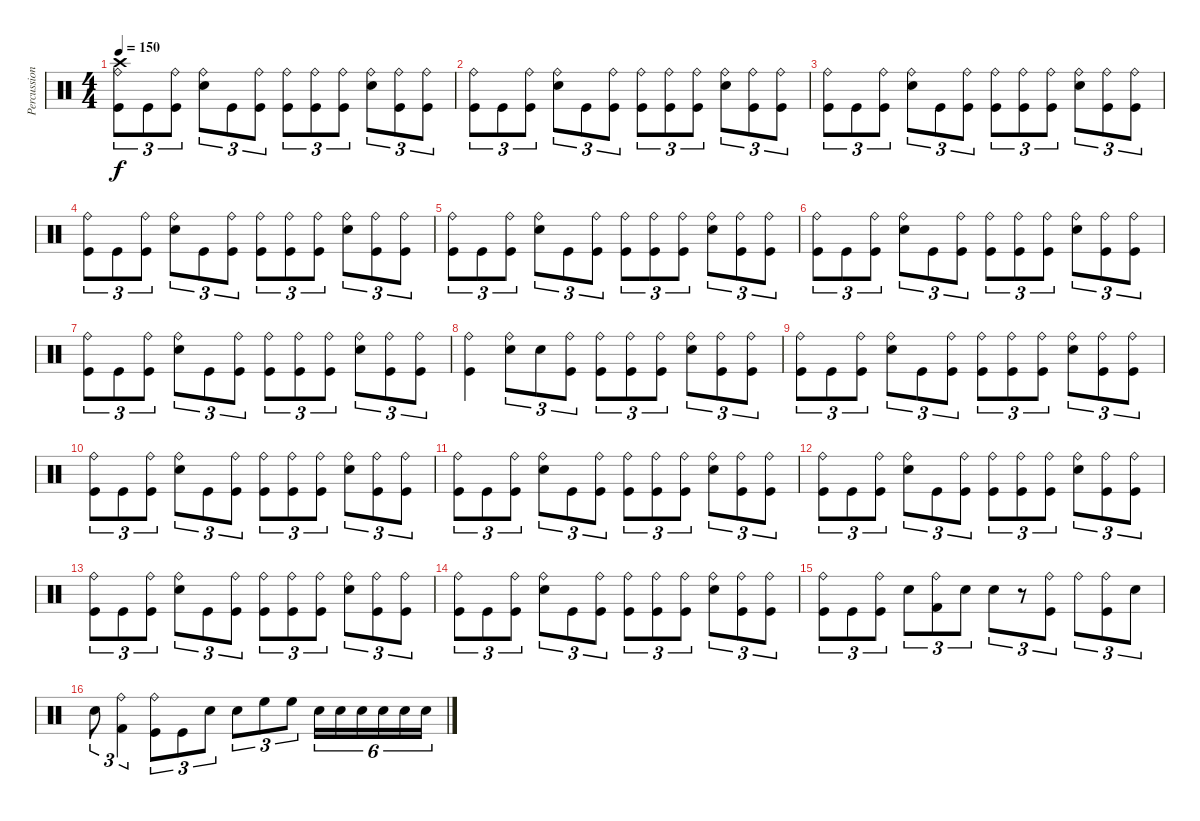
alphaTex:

\track ("Percussion" "Percussion") {instrument percussion}
\staff {score}
\articulation defaults
\ts (4 4)
\tempo 150
\clef neutral
\ks c
("Ride (bell)" "Crash high (hit)" "Kick (hit)").8{tu (3 2) dy f} "Kick (hit)".8{tu (3 2)} ("Ride (bell)" "Kick (hit)").8{tu (3 2)} ("Ride (bell)" "Snare (hit) 2").8{tu (3 2)} "Kick (hit)".8{tu (3 2)} ("Ride (bell)" "Kick (hit)").8{tu (3 2)} ("Ride (bell)" "Kick (hit)").8{tu (3 2)} ("Ride (bell)" "Kick (hit)").8{tu (3 2)} ("Ride (bell)" "Kick (hit)").8{tu (3 2)} ("Ride (bell)" "Snare (hit) 2").8{tu (3 2)} ("Ride (bell)" "Kick (hit)").8{tu (3 2)} ("Ride (bell)" "Kick (hit)").8{tu (3 2)} |
("Ride (bell)" "Kick (hit)").8{tu (3 2)} "Kick (hit)".8{tu (3 2)} ("Ride (bell)" "Kick (hit)").8{tu (3 2)} ("Ride (bell)" "Snare (hit) 2").8{tu (3 2)} "Kick (hit)".8{tu (3 2)} ("Ride (bell)" "Kick (hit)").8{tu (3 2)} ("Ride (bell)" "Kick (hit)").8{tu (3 2)} ("Ride (bell)" "Kick (hit)").8{tu (3 2)} ("Ride (bell)" "Kick (hit)").8{tu (3 2)} ("Ride (bell)" "Snare (hit) 2").8{tu (3 2)} ("Ride (bell)" "Kick (hit)").8{tu (3 2)} ("Ride (bell)" "Kick (hit)").8{tu (3 2)} |
("Ride (bell)" "Kick (hit)").8{tu (3 2)} "Kick (hit)".8{tu (3 2)} ("Ride (bell)" "Kick (hit)").8{tu (3 2)} ("Ride (bell)" "Snare (hit) 2").8{tu (3 2)} "Kick (hit)".8{tu (3 2)} ("Ride (bell)" "Kick (hit)").8{tu (3 2)} ("Ride (bell)" "Kick (hit)").8{tu (3 2)} ("Ride (bell)" "Kick (hit)").8{tu (3 2)} ("Ride (bell)" "Kick (hit)").8{tu (3 2)} ("Ride (bell)" "Snare (hit) 2").8{tu (3 2)} ("Ride (bell)" "Kick (hit)").8{tu (3 2)} ("Ride (bell)" "Kick (hit)").8{tu (3 2)} |
("Ride (bell)" "Kick (hit)").8{tu (3 2)} "Kick (hit)".8{tu (3 2)} ("Ride (bell)" "Kick (hit)").8{tu (3 2)} ("Ride (bell)" "Snare (hit) 2").8{tu (3 2)} "Kick (hit)".8{tu (3 2)} ("Ride (bell)" "Kick (hit)").8{tu (3 2)} ("Ride (bell)" "Kick (hit)").8{tu (3 2)} ("Ride (bell)" "Kick (hit)").8{tu (3 2)} ("Ride (bell)" "Kick (hit)").8{tu (3 2)} ("Ride (bell)" "Snare (hit) 2").8{tu (3 2)} ("Ride (bell)" "Kick (hit)").8{tu (3 2)} ("Ride (bell)" "Kick (hit)").8{tu (3 2)} |
("Ride (bell)" "Kick (hit)").8{tu (3 2)} "Kick (hit)".8{tu (3 2)} ("Ride (bell)" "Kick (hit)").8{tu (3 2)} ("Ride (bell)" "Snare (hit) 2").8{tu (3 2)} "Kick (hit)".8{tu (3 2)} ("Ride (bell)" "Kick (hit)").8{tu (3 2)} ("Ride (bell)" "Kick (hit)").8{tu (3 2)} ("Ride (bell)" "Kick (hit)").8{tu (3 2)} ("Ride (bell)" "Kick (hit)").8{tu (3 2)} ("Ride (bell)" "Snare (hit) 2").8{tu (3 2)} ("Ride (bell)" "Kick (hit)").8{tu (3 2)} ("Ride (bell)" "Kick (hit)").8{tu (3 2)} |
("Ride (bell)" "Kick (hit)").8{tu (3 2)} "Kick (hit)".8{tu (3 2)} ("Ride (bell)" "Kick (hit)").8{tu (3 2)} ("Ride (bell)" "Snare (hit) 2").8{tu (3 2)} "Kick (hit)".8{tu (3 2)} ("Ride (bell)" "Kick (hit)").8{tu (3 2)} ("Ride (bell)" "Kick (hit)").8{tu (3 2)} ("Ride (bell)" "Kick (hit)").8{tu (3 2)} ("Ride (bell)" "Kick (hit)").8{tu (3 2)} ("Ride (bell)" "Snare (hit) 2").8{tu (3 2)} ("Ride (bell)" "Kick (hit)").8{tu (3 2)} ("Ride (bell)" "Kick (hit)").8{tu (3 2)} |
("Ride (bell)" "Kick (hit)").8{tu (3 2)} "Kick (hit)".8{tu (3 2)} ("Ride (bell)" "Kick (hit)").8{tu (3 2)} ("Ride (bell)" "Snare (hit) 2").8{tu (3 2)} "Kick (hit)".8{tu (3 2)} ("Ride (bell)" "Kick (hit)").8{tu (3 2)} ("Ride (bell)" "Kick (hit)").8{tu (3 2)} ("Ride (bell)" "Kick (hit)").8{tu (3 2)} ("Ride (bell)" "Kick (hit)").8{tu (3 2)} ("Ride (bell)" "Snare (hit) 2").8{tu (3 2)} ("Ride (bell)" "Kick (hit)").8{tu (3 2)} ("Ride (bell)" "Kick (hit)").8{tu (3 2)} |
("Ride (bell)" "Kick (hit)").4 ("Ride (bell)" "Snare (hit) 2").8{tu (3 2)} "Snare (hit) 2".8{tu (3 2)} ("Ride (bell)" "Kick (hit)").8{tu (3 2)} ("Ride (bell)" "Kick (hit)").8{tu (3 2)} ("Ride (bell)" "Kick (hit)").8{tu (3 2)} ("Ride (bell)" "Kick (hit)").8{tu (3 2)} ("Ride (bell)" "Snare (hit) 2").8{tu (3 2)} ("Ride (bell)" "Kick (hit)").8{tu (3 2)} ("Ride (bell)" "Kick (hit)").8{tu (3 2)} |
("Ride (bell)" "Kick (hit)").8{tu (3 2)} "Kick (hit)".8{tu (3 2)} ("Ride (bell)" "Kick (hit)").8{tu (3 2)} ("Ride (bell)" "Snare (hit) 2").8{tu (3 2)} "Kick (hit)".8{tu (3 2)} ("Ride (bell)" "Kick (hit)").8{tu (3 2)} ("Ride (bell)" "Kick (hit)").8{tu (3 2)} ("Ride (bell)" "Kick (hit)").8{tu (3 2)} ("Ride (bell)" "Kick (hit)").8{tu (3 2)} ("Ride (bell)" "Snare (hit) 2").8{tu (3 2)} ("Ride (bell)" "Kick (hit)").8{tu (3 2)} ("Ride (bell)" "Kick (hit)").8{tu (3 2)} |
("Ride (bell)" "Kick (hit)").8{tu (3 2)} "Kick (hit)".8{tu (3 2)} ("Ride (bell)" "Kick (hit)").8{tu (3 2)} ("Ride (bell)" "Snare (hit) 2").8{tu (3 2)} "Kick (hit)".8{tu (3 2)} ("Ride (bell)" "Kick (hit)").8{tu (3 2)} ("Ride (bell)" "Kick (hit)").8{tu (3 2)} ("Ride (bell)" "Kick (hit)").8{tu (3 2)} ("Ride (bell)" "Kick (hit)").8{tu (3 2)} ("Ride (bell)" "Snare (hit) 2").8{tu (3 2)} ("Ride (bell)" "Kick (hit)").8{tu (3 2)} ("Ride (bell)" "Kick (hit)").8{tu (3 2)} |
("Ride (bell)" "Kick (hit)").8{tu (3 2)} "Kick (hit)".8{tu (3 2)} ("Ride (bell)" "Kick (hit)").8{tu (3 2)} ("Ride (bell)" "Snare (hit) 2").8{tu (3 2)} "Kick (hit)".8{tu (3 2)} ("Ride (bell)" "Kick (hit)").8{tu (3 2)} ("Ride (bell)" "Kick (hit)").8{tu (3 2)} ("Ride (bell)" "Kick (hit)").8{tu (3 2)} ("Ride (bell)" "Kick (hit)").8{tu (3 2)} ("Ride (bell)" "Snare (hit) 2").8{tu (3 2)} ("Ride (bell)" "Kick (hit)").8{tu (3 2)} ("Ride (bell)" "Kick (hit)").8{tu (3 2)} |
("Ride (bell)" "Kick (hit)").8{tu (3 2)} "Kick (hit)".8{tu (3 2)} ("Ride (bell)" "Kick (hit)").8{tu (3 2)} ("Ride (bell)" "Snare (hit) 2").8{tu (3 2)} "Kick (hit)".8{tu (3 2)} ("Ride (bell)" "Kick (hit)").8{tu (3 2)} ("Ride (bell)" "Kick (hit)").8{tu (3 2)} ("Ride (bell)" "Kick (hit)").8{tu (3 2)} ("Ride (bell)" "Kick (hit)").8{tu (3 2)} ("Ride (bell)" "Snare (hit) 2").8{tu (3 2)} ("Ride (bell)" "Kick (hit)").8{tu (3 2)} ("Ride (bell)" "Kick (hit)").8{tu (3 2)} |
("Ride (bell)" "Kick (hit)").8{tu (3 2)} "Kick (hit)".8{tu (3 2)} ("Ride (bell)" "Kick (hit)").8{tu (3 2)} ("Ride (bell)" "Snare (hit) 2").8{tu (3 2)} "Kick (hit)".8{tu (3 2)} ("Ride (bell)" "Kick (hit)").8{tu (3 2)} ("Ride (bell)" "Kick (hit)").8{tu (3 2)} ("Ride (bell)" "Kick (hit)").8{tu (3 2)} ("Ride (bell)" "Kick (hit)").8{tu (3 2)} ("Ride (bell)" "Snare (hit) 2").8{tu (3 2)} ("Ride (bell)" "Kick (hit)").8{tu (3 2)} ("Ride (bell)" "Kick (hit)").8{tu (3 2)} |
("Ride (bell)" "Kick (hit)").8{tu (3 2)} "Kick (hit)".8{tu (3 2)} ("Ride (bell)" "Kick (hit)").8{tu (3 2)} ("Ride (bell)" "Snare (hit) 2").8{tu (3 2)} "Kick (hit)".8{tu (3 2)} ("Ride (bell)" "Kick (hit)").8{tu (3 2)} ("Ride (bell)" "Kick (hit)").8{tu (3 2)} ("Ride (bell)" "Kick (hit)").8{tu (3 2)} ("Ride (bell)" "Kick (hit)").8{tu (3 2)} ("Ride (bell)" "Snare (hit) 2").8{tu (3 2)} ("Ride (bell)" "Kick (hit)").8{tu (3 2)} ("Ride (bell)" "Kick (hit)").8{tu (3 2)} |
("Ride (bell)" "Kick (hit)").8{tu (3 2)} "Kick (hit)".8{tu (3 2)} ("Ride (bell)" "Kick (hit)").8{tu (3 2)} "Snare (hit) 2".8{tu (3 2)} ("Ride (bell)" "Kick (hit) 2").8{tu (3 2)} "Snare (hit) 2".8{tu (3 2)} "Snare (hit) 2".8{tu (3 2)} r.8{tu (3 2)} ("Ride (bell)" "Kick (hit)").8{tu (3 2)} "Ride (bell)".8{tu (3 2)} ("Ride (bell)" "Kick (hit)").8{tu (3 2)} "Snare (hit) 2".8{tu (3 2)} |
"Snare (hit) 2".8{tu (3 2)} ("Ride (bell)" "Kick (hit) 2").4{tu (3 2)} ("Ride (bell)" "Kick (hit)").8{tu (3 2)} "Kick (hit)".8{tu (3 2)} "Snare (hit) 2".8{tu (3 2)} "Snare (hit) 2".8{tu (3 2)} "High Floor Tom (hit)".8{tu (3 2)} "High Floor Tom (hit)".8{tu (3 2)} "Snare (hit) 2".16{tu (6 4)} "Snare (hit) 2".16{tu (6 4)} "Snare (hit) 2".16{tu (6 4)} "Snare (hit) 2".16{tu (6 4)} "Snare (hit) 2".16{tu (6 4)} "Snare (hit) 2".16{tu (6 4)}
